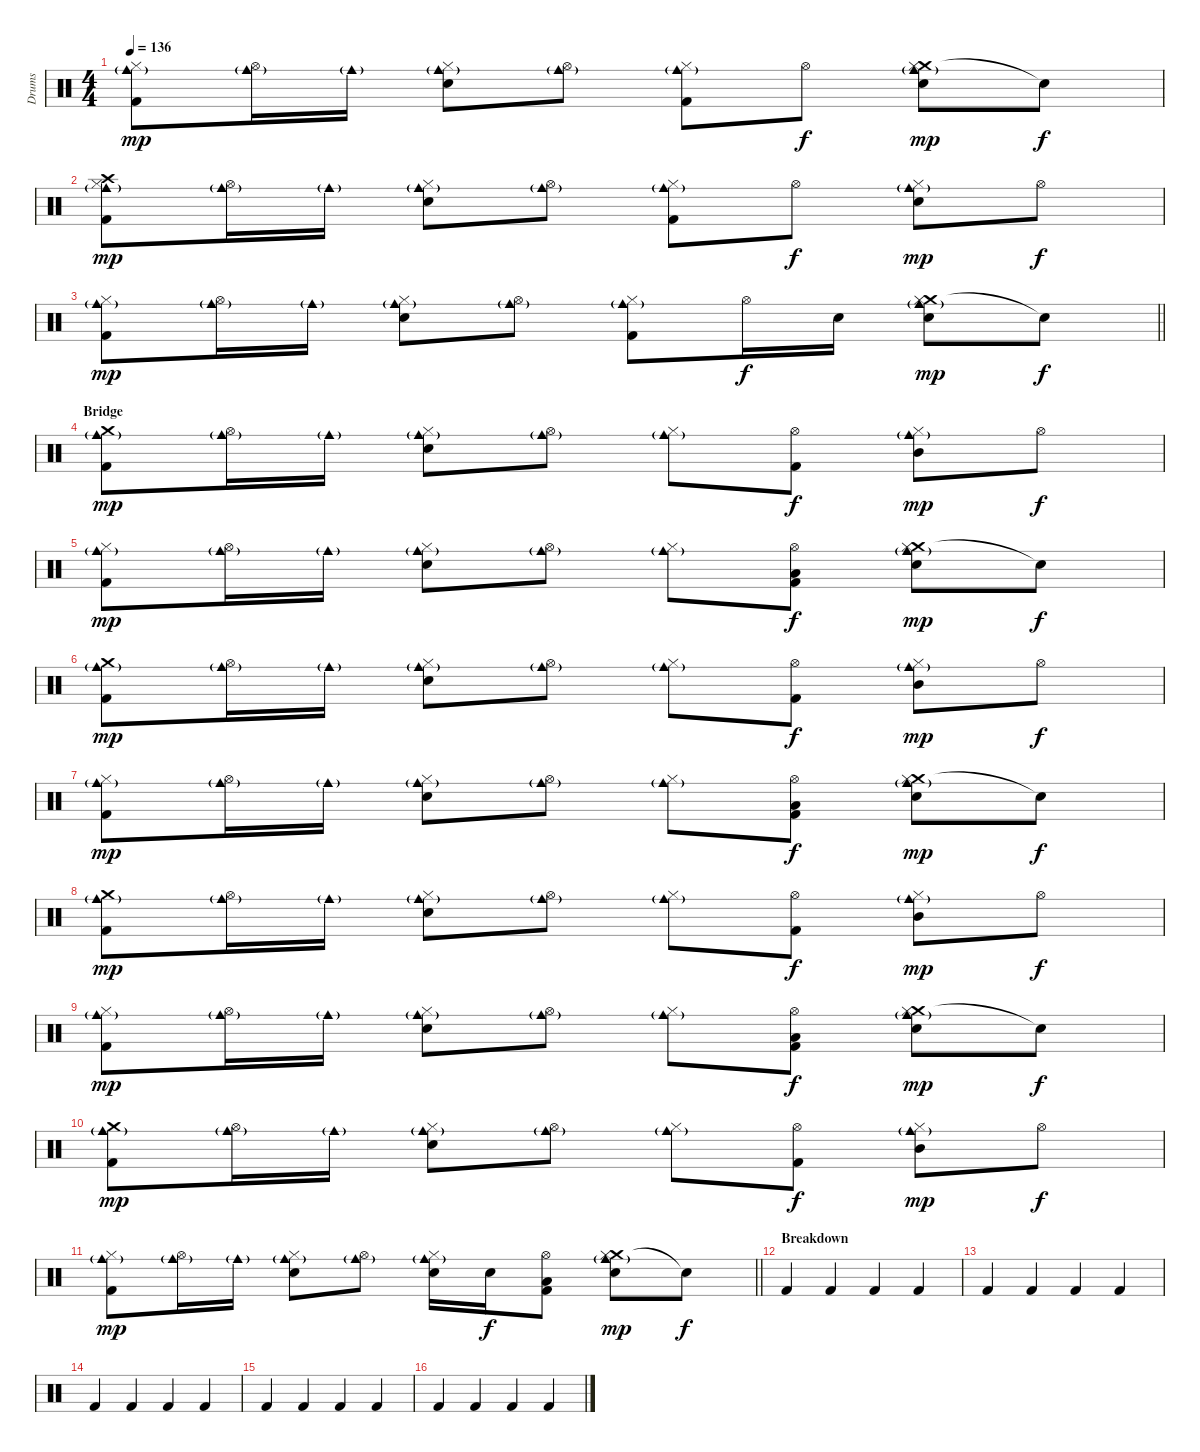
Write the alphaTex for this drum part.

\track ("Drums" "Drums") {instrument percussion}
\staff {score}
\articulation defaults
\ts (4 4)
\tempo 136
\clef neutral
\ks c
("Cowbell medium (hit)"{g} "Hi-Hat (closed)" "Kick (hit) 2").8{dy mp} ("Cowbell medium (hit)"{g} "Hi-Hat (open)").16 "Cowbell medium (hit)"{g}.16 ("Cowbell medium (hit)"{g} "Hi-Hat (closed)" "Electric Snare (hit)").8 ("Cowbell medium (hit)"{g} "Hi-Hat (open)").8 ("Cowbell medium (hit)"{g} "Hi-Hat (closed)" "Kick (hit) 2").8 "Hi-Hat (open)".8{dy f} ("Crash medium (hit)" "Cowbell medium (hit)"{g} "Hi-Hat (closed)" "Electric Snare (hit)").8{dy mp} "Snare (hit)"{t}.8{dy f} |
("Crash high (hit)" "Cowbell medium (hit)"{g} "Hi-Hat (closed)" "Kick (hit) 2").8{dy mp} ("Cowbell medium (hit)"{g} "Hi-Hat (open)").16 "Cowbell medium (hit)"{g}.16 ("Cowbell medium (hit)"{g} "Hi-Hat (closed)" "Electric Snare (hit)").8 ("Cowbell medium (hit)"{g} "Hi-Hat (open)").8 ("Cowbell medium (hit)"{g} "Hi-Hat (closed)" "Kick (hit) 2").8 "Hi-Hat (open)".8{dy f} ("Cowbell medium (hit)"{g} "Hi-Hat (closed)" "Electric Snare (hit)").8{dy mp} "Hi-Hat (open)".8{dy f} |
\barLineRight lightlight
("Cowbell medium (hit)"{g} "Hi-Hat (closed)" "Kick (hit) 2").8{dy mp} ("Cowbell medium (hit)"{g} "Hi-Hat (open)").16 "Cowbell medium (hit)"{g}.16 ("Cowbell medium (hit)"{g} "Hi-Hat (closed)" "Electric Snare (hit)").8 ("Cowbell medium (hit)"{g} "Hi-Hat (open)").8 ("Cowbell medium (hit)"{g} "Hi-Hat (closed)" "Kick (hit) 2").8 "Hi-Hat (open)".16{dy f} "Electric Snare (hit)".16 ("Crash medium (hit)" "Cowbell medium (hit)"{g} "Hi-Hat (closed)" "Electric Snare (hit)").8{dy mp} "Snare (hit)"{t}.8{dy f} |
\section ("" "Bridge")
("Crash medium (hit)" "Cowbell medium (hit)"{g} "Kick (hit) 2").8{dy mp} ("Cowbell medium (hit)"{g} "Hi-Hat (open)").16 "Cowbell medium (hit)"{g}.16 ("Cowbell medium (hit)"{g} "Hi-Hat (closed)" "Electric Snare (hit)").8 ("Cowbell medium (hit)"{g} "Hi-Hat (open)").8 ("Cowbell medium (hit)"{g} "Hi-Hat (closed)").8 ("Hi-Hat (open)" "Kick (hit) 2").8{dy f} ("Cowbell medium (hit)"{g} "Hi-Hat (closed)" "Mid Tom (hit)").8{dy mp} "Hi-Hat (open)".8{dy f} |
("Cowbell medium (hit)"{g} "Hi-Hat (closed)" "Kick (hit) 2").8{dy mp} ("Cowbell medium (hit)"{g} "Hi-Hat (open)").16 "Cowbell medium (hit)"{g}.16 ("Cowbell medium (hit)"{g} "Hi-Hat (closed)" "Electric Snare (hit)").8 ("Cowbell medium (hit)"{g} "Hi-Hat (open)").8 ("Cowbell medium (hit)"{g} "Hi-Hat (closed)").8 ("Hi-Hat (open)" "Low Tom (hit)" "Kick (hit) 2").8{dy f} ("Crash medium (hit)" "Cowbell medium (hit)"{g} "Hi-Hat (closed)" "Electric Snare (hit)").8{dy mp} "Snare (hit)"{t}.8{dy f} |
("Crash medium (hit)" "Cowbell medium (hit)"{g} "Kick (hit) 2").8{dy mp} ("Cowbell medium (hit)"{g} "Hi-Hat (open)").16 "Cowbell medium (hit)"{g}.16 ("Cowbell medium (hit)"{g} "Hi-Hat (closed)" "Electric Snare (hit)").8 ("Cowbell medium (hit)"{g} "Hi-Hat (open)").8 ("Cowbell medium (hit)"{g} "Hi-Hat (closed)").8 ("Hi-Hat (open)" "Kick (hit) 2").8{dy f} ("Cowbell medium (hit)"{g} "Hi-Hat (closed)" "Mid Tom (hit)").8{dy mp} "Hi-Hat (open)".8{dy f} |
("Cowbell medium (hit)"{g} "Hi-Hat (closed)" "Kick (hit) 2").8{dy mp} ("Cowbell medium (hit)"{g} "Hi-Hat (open)").16 "Cowbell medium (hit)"{g}.16 ("Cowbell medium (hit)"{g} "Hi-Hat (closed)" "Electric Snare (hit)").8 ("Cowbell medium (hit)"{g} "Hi-Hat (open)").8 ("Cowbell medium (hit)"{g} "Hi-Hat (closed)").8 ("Hi-Hat (open)" "Low Tom (hit)" "Kick (hit) 2").8{dy f} ("Crash medium (hit)" "Cowbell medium (hit)"{g} "Hi-Hat (closed)" "Electric Snare (hit)").8{dy mp} "Snare (hit)"{t}.8{dy f} |
("Crash medium (hit)" "Cowbell medium (hit)"{g} "Kick (hit) 2").8{dy mp} ("Cowbell medium (hit)"{g} "Hi-Hat (open)").16 "Cowbell medium (hit)"{g}.16 ("Cowbell medium (hit)"{g} "Hi-Hat (closed)" "Electric Snare (hit)").8 ("Cowbell medium (hit)"{g} "Hi-Hat (open)").8 ("Cowbell medium (hit)"{g} "Hi-Hat (closed)").8 ("Hi-Hat (open)" "Kick (hit) 2").8{dy f} ("Cowbell medium (hit)"{g} "Hi-Hat (closed)" "Mid Tom (hit)").8{dy mp} "Hi-Hat (open)".8{dy f} |
("Cowbell medium (hit)"{g} "Hi-Hat (closed)" "Kick (hit) 2").8{dy mp} ("Cowbell medium (hit)"{g} "Hi-Hat (open)").16 "Cowbell medium (hit)"{g}.16 ("Cowbell medium (hit)"{g} "Hi-Hat (closed)" "Electric Snare (hit)").8 ("Cowbell medium (hit)"{g} "Hi-Hat (open)").8 ("Cowbell medium (hit)"{g} "Hi-Hat (closed)").8 ("Hi-Hat (open)" "Low Tom (hit)" "Kick (hit) 2").8{dy f} ("Crash medium (hit)" "Cowbell medium (hit)"{g} "Hi-Hat (closed)" "Electric Snare (hit)").8{dy mp} "Snare (hit)"{t}.8{dy f} |
("Crash medium (hit)" "Cowbell medium (hit)"{g} "Kick (hit) 2").8{dy mp} ("Cowbell medium (hit)"{g} "Hi-Hat (open)").16 "Cowbell medium (hit)"{g}.16 ("Cowbell medium (hit)"{g} "Hi-Hat (closed)" "Electric Snare (hit)").8 ("Cowbell medium (hit)"{g} "Hi-Hat (open)").8 ("Cowbell medium (hit)"{g} "Hi-Hat (closed)").8 ("Hi-Hat (open)" "Kick (hit) 2").8{dy f} ("Cowbell medium (hit)"{g} "Hi-Hat (closed)" "Mid Tom (hit)").8{dy mp} "Hi-Hat (open)".8{dy f} |
\barLineRight lightlight
("Cowbell medium (hit)"{g} "Hi-Hat (closed)" "Kick (hit) 2").8{dy mp} ("Cowbell medium (hit)"{g} "Hi-Hat (open)").16 "Cowbell medium (hit)"{g}.16 ("Cowbell medium (hit)"{g} "Hi-Hat (closed)" "Electric Snare (hit)").8 ("Cowbell medium (hit)"{g} "Hi-Hat (open)").8 ("Cowbell medium (hit)"{g} "Hi-Hat (closed)" "Electric Snare (hit)").16 "Electric Snare (hit)".16{dy f} ("Hi-Hat (open)" "Low Tom (hit)" "Kick (hit) 2").8 ("Crash medium (hit)" "Cowbell medium (hit)"{g} "Hi-Hat (closed)" "Electric Snare (hit)").8{dy mp} "Snare (hit)"{t}.8{dy f} |
\section ("" "Breakdown")
"Kick (hit) 2".4 "Kick (hit) 2".4 "Kick (hit) 2".4 "Kick (hit) 2".4 |
"Kick (hit) 2".4 "Kick (hit) 2".4 "Kick (hit) 2".4 "Kick (hit) 2".4 |
"Kick (hit) 2".4 "Kick (hit) 2".4 "Kick (hit) 2".4 "Kick (hit) 2".4 |
"Kick (hit) 2".4 "Kick (hit) 2".4 "Kick (hit) 2".4 "Kick (hit) 2".4 |
"Kick (hit) 2".4 "Kick (hit) 2".4 "Kick (hit) 2".4 "Kick (hit) 2".4
